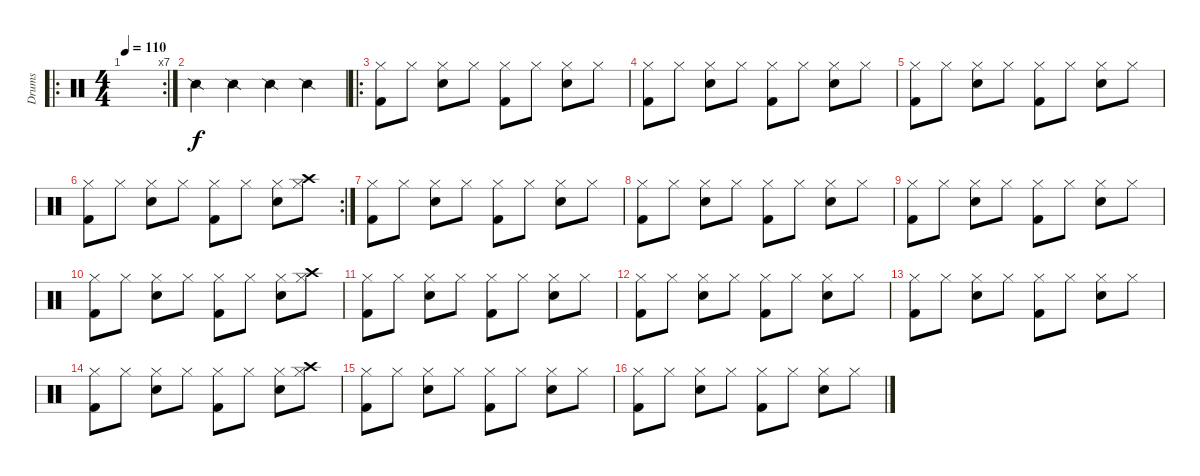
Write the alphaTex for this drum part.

\track ("Drums" "Drums") {instrument percussion}
\staff {score}
\articulation defaults
\ro
\rc 7
\ts (4 4)
\tempo 110
\clef neutral
\ks c
|
"Snare (side stick) 2".4 "Snare (side stick) 2".4 "Snare (side stick) 2".4 "Snare (side stick) 2".4 |
\ro
("Hi-Hat (closed)" "Kick (hit) 2").8 "Hi-Hat (closed)".8 ("Hi-Hat (closed)" "Snare (hit) 2").8 "Hi-Hat (closed)".8 ("Hi-Hat (closed)" "Kick (hit) 2").8 "Hi-Hat (closed)".8 ("Hi-Hat (closed)" "Snare (hit) 2").8 "Hi-Hat (closed)".8 |
("Hi-Hat (closed)" "Kick (hit) 2").8 "Hi-Hat (closed)".8 ("Hi-Hat (closed)" "Snare (hit) 2").8 "Hi-Hat (closed)".8 ("Hi-Hat (closed)" "Kick (hit) 2").8 "Hi-Hat (closed)".8 ("Hi-Hat (closed)" "Snare (hit) 2").8 "Hi-Hat (closed)".8 |
("Hi-Hat (closed)" "Kick (hit) 2").8 "Hi-Hat (closed)".8 ("Hi-Hat (closed)" "Snare (hit) 2").8 "Hi-Hat (closed)".8 ("Hi-Hat (closed)" "Kick (hit) 2").8 "Hi-Hat (closed)".8 ("Hi-Hat (closed)" "Snare (hit) 2").8 "Hi-Hat (closed)".8 |
\rc 2
("Hi-Hat (closed)" "Kick (hit) 2").8 "Hi-Hat (closed)".8 ("Hi-Hat (closed)" "Snare (hit) 2").8 "Hi-Hat (closed)".8 ("Hi-Hat (closed)" "Kick (hit) 2").8 "Hi-Hat (closed)".8 ("Hi-Hat (closed)" "Snare (hit) 2").8 ("Hi-Hat (closed)" "Crash high (hit)").8 |
("Hi-Hat (closed)" "Kick (hit) 2").8 "Hi-Hat (closed)".8 ("Hi-Hat (closed)" "Snare (hit) 2").8 "Hi-Hat (closed)".8 ("Hi-Hat (closed)" "Kick (hit) 2").8 "Hi-Hat (closed)".8 ("Hi-Hat (closed)" "Snare (hit) 2").8 "Hi-Hat (closed)".8 |
("Hi-Hat (closed)" "Kick (hit) 2").8 "Hi-Hat (closed)".8 ("Hi-Hat (closed)" "Snare (hit) 2").8 "Hi-Hat (closed)".8 ("Hi-Hat (closed)" "Kick (hit) 2").8 "Hi-Hat (closed)".8 ("Hi-Hat (closed)" "Snare (hit) 2").8 "Hi-Hat (closed)".8 |
("Hi-Hat (closed)" "Kick (hit) 2").8 "Hi-Hat (closed)".8 ("Hi-Hat (closed)" "Snare (hit) 2").8 "Hi-Hat (closed)".8 ("Hi-Hat (closed)" "Kick (hit) 2").8 "Hi-Hat (closed)".8 ("Hi-Hat (closed)" "Snare (hit) 2").8 "Hi-Hat (closed)".8 |
("Hi-Hat (closed)" "Kick (hit) 2").8 "Hi-Hat (closed)".8 ("Hi-Hat (closed)" "Snare (hit) 2").8 "Hi-Hat (closed)".8 ("Hi-Hat (closed)" "Kick (hit) 2").8 "Hi-Hat (closed)".8 ("Hi-Hat (closed)" "Snare (hit) 2").8 ("Hi-Hat (closed)" "Crash high (hit)").8 |
("Hi-Hat (closed)" "Kick (hit) 2").8 "Hi-Hat (closed)".8 ("Hi-Hat (closed)" "Snare (hit) 2").8 "Hi-Hat (closed)".8 ("Hi-Hat (closed)" "Kick (hit) 2").8 "Hi-Hat (closed)".8 ("Hi-Hat (closed)" "Snare (hit) 2").8 "Hi-Hat (closed)".8 |
("Hi-Hat (closed)" "Kick (hit) 2").8 "Hi-Hat (closed)".8 ("Hi-Hat (closed)" "Snare (hit) 2").8 "Hi-Hat (closed)".8 ("Hi-Hat (closed)" "Kick (hit) 2").8 "Hi-Hat (closed)".8 ("Hi-Hat (closed)" "Snare (hit) 2").8 "Hi-Hat (closed)".8 |
("Hi-Hat (closed)" "Kick (hit) 2").8 "Hi-Hat (closed)".8 ("Hi-Hat (closed)" "Snare (hit) 2").8 "Hi-Hat (closed)".8 ("Hi-Hat (closed)" "Kick (hit) 2").8 "Hi-Hat (closed)".8 ("Hi-Hat (closed)" "Snare (hit) 2").8 "Hi-Hat (closed)".8 |
("Hi-Hat (closed)" "Kick (hit) 2").8 "Hi-Hat (closed)".8 ("Hi-Hat (closed)" "Snare (hit) 2").8 "Hi-Hat (closed)".8 ("Hi-Hat (closed)" "Kick (hit) 2").8 "Hi-Hat (closed)".8 ("Hi-Hat (closed)" "Snare (hit) 2").8 ("Hi-Hat (closed)" "Crash high (hit)").8 |
("Hi-Hat (closed)" "Kick (hit) 2").8 "Hi-Hat (closed)".8 ("Hi-Hat (closed)" "Snare (hit) 2").8 "Hi-Hat (closed)".8 ("Hi-Hat (closed)" "Kick (hit) 2").8 "Hi-Hat (closed)".8 ("Hi-Hat (closed)" "Snare (hit) 2").8 "Hi-Hat (closed)".8 |
("Hi-Hat (closed)" "Kick (hit) 2").8 "Hi-Hat (closed)".8 ("Hi-Hat (closed)" "Snare (hit) 2").8 "Hi-Hat (closed)".8 ("Hi-Hat (closed)" "Kick (hit) 2").8 "Hi-Hat (closed)".8 ("Hi-Hat (closed)" "Snare (hit) 2").8 "Hi-Hat (closed)".8
